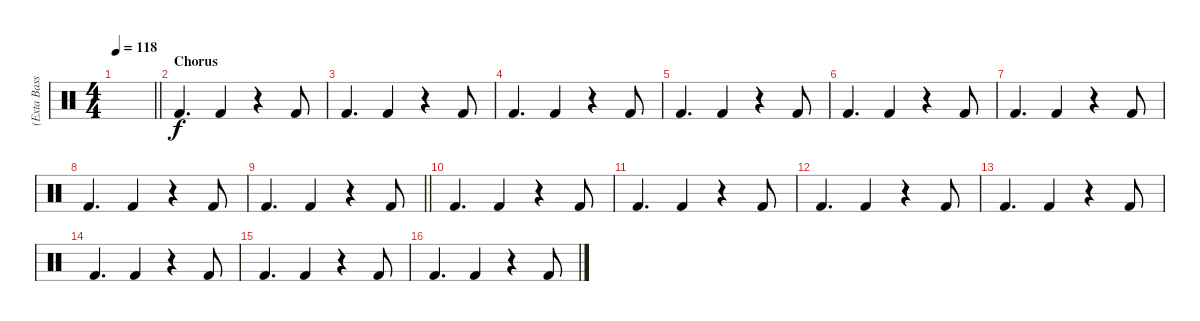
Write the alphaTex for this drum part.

\track ("(Exta Bass Boost)Eddie Fisher" "(Exta Bass") {instrument percussion}
\staff {score}
\articulation defaults
\ts (4 4)
\tempo 118
\clef neutral
\barLineRight lightlight
\ks c
|
\section ("" "Chorus")
"Kick (hit) 2".4{d} "Kick (hit) 2".4 r.4 "Kick (hit) 2".8 |
"Kick (hit) 2".4{d} "Kick (hit) 2".4 r.4 "Kick (hit) 2".8 |
"Kick (hit) 2".4{d} "Kick (hit) 2".4 r.4 "Kick (hit) 2".8 |
"Kick (hit) 2".4{d} "Kick (hit) 2".4 r.4 "Kick (hit) 2".8 |
"Kick (hit) 2".4{d} "Kick (hit) 2".4 r.4 "Kick (hit) 2".8 |
"Kick (hit) 2".4{d} "Kick (hit) 2".4 r.4 "Kick (hit) 2".8 |
"Kick (hit) 2".4{d} "Kick (hit) 2".4 r.4 "Kick (hit) 2".8 |
\barLineRight lightlight "Kick (hit) 2".4{d} "Kick (hit) 2".4
r.4 "Kick (hit) 2".8 |
"Kick (hit) 2".4{d} "Kick (hit) 2".4 r.4 "Kick (hit) 2".8 |
"Kick (hit) 2".4{d} "Kick (hit) 2".4 r.4 "Kick (hit) 2".8 |
"Kick (hit) 2".4{d} "Kick (hit) 2".4 r.4 "Kick (hit) 2".8 |
"Kick (hit) 2".4{d} "Kick (hit) 2".4 r.4 "Kick (hit) 2".8 |
"Kick (hit) 2".4{d} "Kick (hit) 2".4 r.4 "Kick (hit) 2".8 |
"Kick (hit) 2".4{d} "Kick (hit) 2".4 r.4 "Kick (hit) 2".8 |
"Kick (hit) 2".4{d} "Kick (hit) 2".4 r.4 "Kick (hit) 2".8
